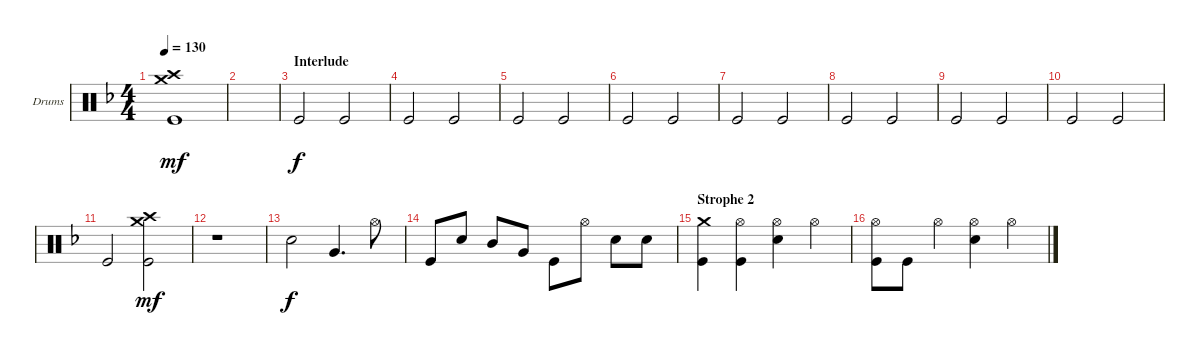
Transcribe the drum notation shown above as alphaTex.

\defaultSystemsLayout 4
\bracketExtendMode groupsimilarinstruments
\firstSystemTrackNameOrientation horizontal
\otherSystemsTrackNameOrientation horizontal
\track ("Drumkit" "Drums") {instrument percussion}
\staff {score}
\articulation defaults
\ts (4 4)
\tempo 130
\clef neutral
\ks dminor
("Kick (hit)" "Crash medium (hit)" "Crash high (hit)").1{dy mf} |
|
\section ("" "Interlude")
"Kick (hit)".2{dy f} "Kick (hit)".2 |
"Kick (hit)".2 "Kick (hit)".2 |
"Kick (hit)".2 "Kick (hit)".2 |
"Kick (hit)".2 "Kick (hit)".2 |
"Kick (hit)".2 "Kick (hit)".2 |
"Kick (hit)".2 "Kick (hit)".2 |
"Kick (hit)".2 "Kick (hit)".2 |
"Kick (hit)".2 "Kick (hit)".2 |
"Kick (hit)".2 ("Kick (hit)" "Crash medium (hit)" "Crash high (hit)").2{dy mf} |
r.1 |
"Snare (hit) 2".2{dy f} "Very Low Tom (hit)".4{d} "Hi-Hat (open)".8 |
"Kick (hit)".8 "Snare (hit) 2".8 "Mid Tom (hit)".8 "Very Low Tom (hit)".8 "Kick (hit)".8 "Hi-Hat (open)".8 "Snare (hit) 2".8 "Snare (hit) 2".8 |
\section ("" "Strophe 2")
("Kick (hit)" "Crash medium (hit)").4 ("Kick (hit)" "Hi-Hat (open)").4 ("Hi-Hat (open)" "Snare (hit) 2").4 "Hi-Hat (open)".4 |
("Kick (hit)" "Hi-Hat (open)").8 "Kick (hit)".8 "Hi-Hat (open)".4 ("Hi-Hat (open)" "Snare (hit) 2").4 "Hi-Hat (open)".4
